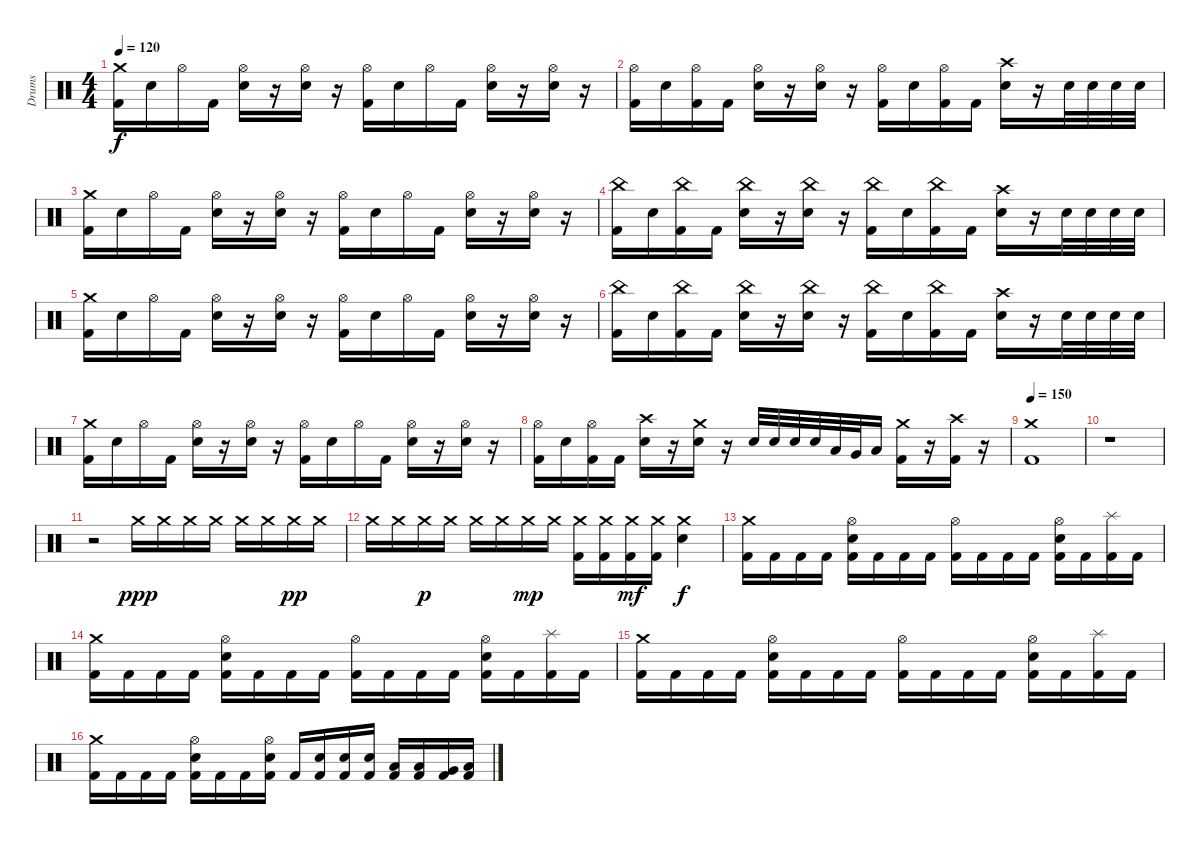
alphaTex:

\track ("Drums" "Drums") {instrument percussion}
\staff {score}
\articulation defaults
\ts (4 4)
\tempo 120
\clef neutral
\ks c
("Crash medium (hit)" "Kick (hit) 2").16{dy f} "Electric Snare (hit)".16 "Hi-Hat (open)".16 "Kick (hit) 2".16 ("Hi-Hat (open)" "Electric Snare (hit)").16 r.16 ("Hi-Hat (open)" "Electric Snare (hit)").16 r.16 ("Hi-Hat (open)" "Kick (hit) 2").16 "Electric Snare (hit)".16 "Hi-Hat (open)".16 "Kick (hit) 2".16 ("Hi-Hat (open)" "Electric Snare (hit)").16 r.16 ("Hi-Hat (open)" "Electric Snare (hit)").16 r.16 |
("Hi-Hat (open)" "Kick (hit) 2").16 "Electric Snare (hit)".16 ("Hi-Hat (open)" "Kick (hit) 2").16 "Kick (hit) 2".16 ("Hi-Hat (open)" "Electric Snare (hit)").16 r.16 ("Hi-Hat (open)" "Electric Snare (hit)").16 r.16 ("Hi-Hat (open)" "Kick (hit) 2").16 "Electric Snare (hit)".16 ("Hi-Hat (open)" "Kick (hit) 2").16 "Kick (hit) 2".16 ("Crash high (hit)" "Electric Snare (hit)").16 r.16 "Electric Snare (hit)".32 "Electric Snare (hit)".32 "Electric Snare (hit)".32 "Electric Snare (hit)".32 |
("Crash medium (hit)" "Kick (hit) 2").16 "Electric Snare (hit)".16 "Hi-Hat (open)".16 "Kick (hit) 2".16 ("Hi-Hat (open)" "Electric Snare (hit)").16 r.16 ("Hi-Hat (open)" "Electric Snare (hit)").16 r.16 ("Hi-Hat (open)" "Kick (hit) 2").16 "Electric Snare (hit)".16 "Hi-Hat (open)".16 "Kick (hit) 2".16 ("Hi-Hat (open)" "Electric Snare (hit)").16 r.16 ("Hi-Hat (open)" "Electric Snare (hit)").16 r.16 |
("China (hit)" "Kick (hit) 2").16 "Electric Snare (hit)".16 ("China (hit)" "Kick (hit) 2").16 "Kick (hit) 2".16 ("China (hit)" "Electric Snare (hit)").16 r.16 ("China (hit)" "Electric Snare (hit)").16 r.16 ("China (hit)" "Kick (hit) 2").16 "Electric Snare (hit)".16 ("China (hit)" "Kick (hit) 2").16 "Kick (hit) 2".16 ("Crash high (hit)" "Electric Snare (hit)").16 r.16 "Electric Snare (hit)".32 "Electric Snare (hit)".32 "Electric Snare (hit)".32 "Electric Snare (hit)".32 |
("Crash medium (hit)" "Kick (hit) 2").16 "Electric Snare (hit)".16 "Hi-Hat (open)".16 "Kick (hit) 2".16 ("Hi-Hat (open)" "Electric Snare (hit)").16 r.16 ("Hi-Hat (open)" "Electric Snare (hit)").16 r.16 ("Hi-Hat (open)" "Kick (hit) 2").16 "Electric Snare (hit)".16 "Hi-Hat (open)".16 "Kick (hit) 2".16 ("Hi-Hat (open)" "Electric Snare (hit)").16 r.16 ("Hi-Hat (open)" "Electric Snare (hit)").16 r.16 |
("China (hit)" "Kick (hit) 2").16 "Electric Snare (hit)".16 ("China (hit)" "Kick (hit) 2").16 "Kick (hit) 2".16 ("China (hit)" "Electric Snare (hit)").16 r.16 ("China (hit)" "Electric Snare (hit)").16 r.16 ("China (hit)" "Kick (hit) 2").16 "Electric Snare (hit)".16 ("China (hit)" "Kick (hit) 2").16 "Kick (hit) 2".16 ("Crash high (hit)" "Electric Snare (hit)").16 r.16 "Electric Snare (hit)".32 "Electric Snare (hit)".32 "Electric Snare (hit)".32 "Electric Snare (hit)".32 |
("Crash medium (hit)" "Kick (hit) 2").16 "Electric Snare (hit)".16 "Hi-Hat (open)".16 "Kick (hit) 2".16 ("Hi-Hat (open)" "Electric Snare (hit)").16 r.16 ("Hi-Hat (open)" "Electric Snare (hit)").16 r.16 ("Hi-Hat (open)" "Kick (hit) 2").16 "Electric Snare (hit)".16 "Hi-Hat (open)".16 "Kick (hit) 2".16 ("Hi-Hat (open)" "Electric Snare (hit)").16 r.16 ("Hi-Hat (open)" "Electric Snare (hit)").16 r.16 |
("Hi-Hat (open)" "Kick (hit) 2").16 "Electric Snare (hit)".16 ("Hi-Hat (open)" "Kick (hit) 2").16 "Kick (hit) 2".16 ("Crash high (hit)" "Electric Snare (hit)").16 r.16 ("Crash medium (hit)" "Electric Snare (hit)").16 r.16 "Electric Snare (hit)".32 "Electric Snare (hit)".32 "Electric Snare (hit)".32 "Electric Snare (hit)".32 "Low Tom (hit)".32 "Very Low Tom (hit)".32 "Low Floor Tom (hit)".16 ("Crash medium (hit)" "Kick (hit) 2").16 r.16 ("Crash high (hit)" "Kick (hit) 2").16 r.16 |
\section ("" "")
\tempo 150
("Crash medium (hit)" "Kick (hit) 2").1 |
r.1 |
r.2 "Crash medium (hit)".16{dy ppp} "Crash medium (hit)".16 "Crash medium (hit)".16 "Crash medium (hit)".16 "Crash medium (hit)".16 "Crash medium (hit)".16 "Crash medium (hit)".16{dy pp} "Crash medium (hit)".16 |
"Crash medium (hit)".16 "Crash medium (hit)".16 "Crash medium (hit)".16{dy p} "Crash medium (hit)".16 "Crash medium (hit)".16 "Crash medium (hit)".16 "Crash medium (hit)".16{dy mp} "Crash medium (hit)".16 ("Crash medium (hit)" "Kick (hit) 2").16 ("Crash medium (hit)" "Kick (hit) 2").16 ("Crash medium (hit)" "Kick (hit) 2").16{dy mf} ("Crash medium (hit)" "Kick (hit) 2").16 ("Crash medium (hit)" "Electric Snare (hit)").4{dy f} |
("Crash medium (hit)" "Kick (hit) 2").16 "Kick (hit) 2".16 "Kick (hit) 2".16 "Kick (hit) 2".16 ("Hi-Hat (open)" "Electric Snare (hit)" "Kick (hit) 2").16 "Kick (hit) 2".16 "Kick (hit) 2".16 "Kick (hit) 2".16 ("Hi-Hat (open)" "Kick (hit) 2").16 "Kick (hit) 2".16 "Kick (hit) 2".16 "Kick (hit) 2".16 ("Hi-Hat (open)" "Electric Snare (hit)" "Kick (hit) 2").16 "Kick (hit) 2".16 ("Splash (hit)" "Kick (hit) 2").16 "Kick (hit) 2".16 |
("Crash medium (hit)" "Kick (hit) 2").16 "Kick (hit) 2".16 "Kick (hit) 2".16 "Kick (hit) 2".16 ("Hi-Hat (open)" "Electric Snare (hit)" "Kick (hit) 2").16 "Kick (hit) 2".16 "Kick (hit) 2".16 "Kick (hit) 2".16 ("Hi-Hat (open)" "Kick (hit) 2").16 "Kick (hit) 2".16 "Kick (hit) 2".16 "Kick (hit) 2".16 ("Hi-Hat (open)" "Electric Snare (hit)" "Kick (hit) 2").16 "Kick (hit) 2".16 ("Splash (hit)" "Kick (hit) 2").16 "Kick (hit) 2".16 |
("Crash medium (hit)" "Kick (hit) 2").16 "Kick (hit) 2".16 "Kick (hit) 2".16 "Kick (hit) 2".16 ("Hi-Hat (open)" "Electric Snare (hit)" "Kick (hit) 2").16 "Kick (hit) 2".16 "Kick (hit) 2".16 "Kick (hit) 2".16 ("Hi-Hat (open)" "Kick (hit) 2").16 "Kick (hit) 2".16 "Kick (hit) 2".16 "Kick (hit) 2".16 ("Hi-Hat (open)" "Electric Snare (hit)" "Kick (hit) 2").16 "Kick (hit) 2".16 ("Splash (hit)" "Kick (hit) 2").16 "Kick (hit) 2".16 |
("Crash medium (hit)" "Kick (hit) 2").16 "Kick (hit) 2".16 "Kick (hit) 2".16 "Kick (hit) 2".16 ("Hi-Hat (open)" "Electric Snare (hit)" "Kick (hit) 2").16 "Kick (hit) 2".16 "Kick (hit) 2".16 ("Hi-Hat (open)" "Electric Snare (hit)" "Kick (hit) 2").16 "Kick (hit) 2".16 ("Electric Snare (hit)" "Kick (hit) 2").16 ("Electric Snare (hit)" "Kick (hit) 2").16 ("Electric Snare (hit)" "Kick (hit) 2").16 ("Low Tom (hit)" "Kick (hit) 2").16 ("Low Tom (hit)" "Kick (hit) 2").16 ("Very Low Tom (hit)" "Kick (hit) 2").16 ("Low Floor Tom (hit)" "Kick (hit) 2").16
